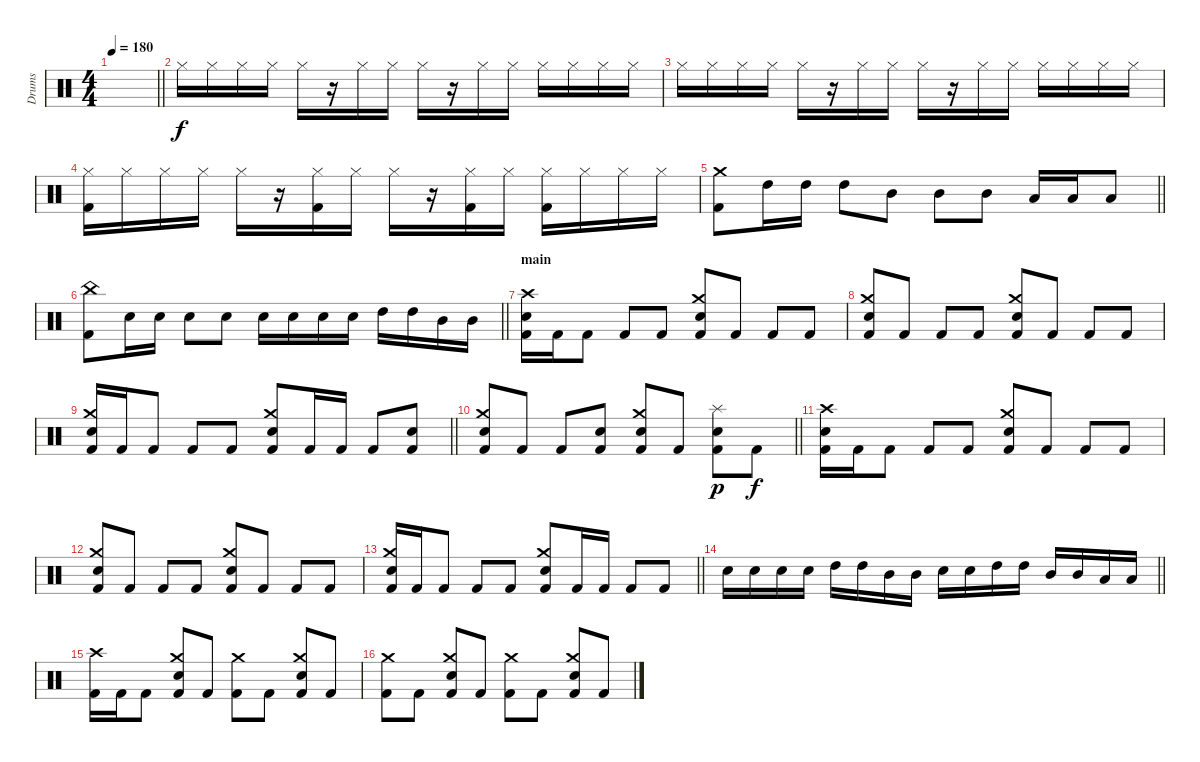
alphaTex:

\track ("Drums" "Drums") {instrument percussion}
\staff {score}
\articulation defaults
\ts (4 4)
\tempo 180
\clef neutral
\barLineRight lightlight
\ks c
|
"Hi-Hat (closed)".16 "Hi-Hat (closed)".16 "Hi-Hat (closed)".16 "Hi-Hat (closed)".16 "Hi-Hat (closed)".16 r.16 "Hi-Hat (closed)".16 "Hi-Hat (closed)".16 "Hi-Hat (closed)".16 r.16 "Hi-Hat (closed)".16 "Hi-Hat (closed)".16 "Hi-Hat (closed)".16 "Hi-Hat (closed)".16 "Hi-Hat (closed)".16 "Hi-Hat (closed)".16 |
"Hi-Hat (closed)".16 "Hi-Hat (closed)".16 "Hi-Hat (closed)".16 "Hi-Hat (closed)".16 "Hi-Hat (closed)".16 r.16 "Hi-Hat (closed)".16 "Hi-Hat (closed)".16 "Hi-Hat (closed)".16 r.16 "Hi-Hat (closed)".16 "Hi-Hat (closed)".16 "Hi-Hat (closed)".16 "Hi-Hat (closed)".16 "Hi-Hat (closed)".16 "Hi-Hat (closed)".16 |
("Hi-Hat (closed)" "Kick (hit) 2").16 "Hi-Hat (closed)".16 "Hi-Hat (closed)".16 "Hi-Hat (closed)".16 "Hi-Hat (closed)".16 r.16 ("Hi-Hat (closed)" "Kick (hit) 2").16 "Hi-Hat (closed)".16 "Hi-Hat (closed)".16 r.16 ("Hi-Hat (closed)" "Kick (hit) 2").16 "Hi-Hat (closed)".16 ("Hi-Hat (closed)" "Kick (hit) 2").16 "Hi-Hat (closed)".16 "Hi-Hat (closed)".16 "Hi-Hat (closed)".16 |
\barLineRight lightlight
("Crash medium (hit)" "Kick (hit) 2").8 "High Tom (hit)".16{dy f} "High Tom (hit)".16 "High Tom (hit)".8 "Mid Tom (hit)".8 "Mid Tom (hit)".8 "Mid Tom (hit)".8 "Low Tom (hit)".16 "Low Tom (hit)".16 "Low Tom (hit)".8 |
\barLineRight lightlight
("China (hit)" "Kick (hit) 2").8 "Electric Snare (hit)".16 "Electric Snare (hit)".16 "Electric Snare (hit)".8 "Electric Snare (hit)".8 "Electric Snare (hit)".16 "Electric Snare (hit)".16 "Electric Snare (hit)".16 "Electric Snare (hit)".16 "High Tom (hit)".16 "High Tom (hit)".16 "Mid Tom (hit)".16 "Mid Tom (hit)".16 |
\section ("" "main")
("Crash high (hit)" "Electric Snare (hit)" "Kick (hit) 2").16 "Kick (hit) 2".16 "Kick (hit) 2".8 "Kick (hit) 2".8 "Kick (hit) 2".8 ("Crash medium (hit)" "Electric Snare (hit)" "Kick (hit) 2").8 "Kick (hit) 2".8 "Kick (hit) 2".8 "Kick (hit) 2".8 |
("Crash medium (hit)" "Electric Snare (hit)" "Kick (hit) 2").8 "Kick (hit) 2".8 "Kick (hit) 2".8 "Kick (hit) 2".8 ("Crash medium (hit)" "Electric Snare (hit)" "Kick (hit) 2").8 "Kick (hit) 2".8 "Kick (hit) 2".8 "Kick (hit) 2".8 |
\barLineRight lightlight
("Crash medium (hit)" "Electric Snare (hit)" "Kick (hit) 2").16 "Kick (hit) 2".16 "Kick (hit) 2".8 "Kick (hit) 2".8 "Kick (hit) 2".8 ("Crash medium (hit)" "Electric Snare (hit)" "Kick (hit) 2").8 "Kick (hit) 2".16 "Kick (hit) 2".16 "Kick (hit) 2".8 ("Electric Snare (hit)" "Kick (hit) 2").8 |
\barLineRight lightlight
("Crash medium (hit)" "Electric Snare (hit)" "Kick (hit) 2").8 "Kick (hit) 2".8 "Kick (hit) 2".8 ("Electric Snare (hit)" "Kick (hit) 2").8 ("Crash medium (hit)" "Electric Snare (hit)" "Kick (hit) 2").8 "Kick (hit) 2".8 ("Splash (hit)" "Electric Snare (hit)" "Kick (hit) 2").8{dy p} "Kick (hit) 2".8{dy f} |
("Crash high (hit)" "Electric Snare (hit)" "Kick (hit) 2").16 "Kick (hit) 2".16 "Kick (hit) 2".8 "Kick (hit) 2".8 "Kick (hit) 2".8 ("Crash medium (hit)" "Electric Snare (hit)" "Kick (hit) 2").8 "Kick (hit) 2".8 "Kick (hit) 2".8 "Kick (hit) 2".8 |
("Crash medium (hit)" "Electric Snare (hit)" "Kick (hit) 2").8 "Kick (hit) 2".8 "Kick (hit) 2".8 "Kick (hit) 2".8 ("Crash medium (hit)" "Electric Snare (hit)" "Kick (hit) 2").8 "Kick (hit) 2".8 "Kick (hit) 2".8 "Kick (hit) 2".8 |
\barLineRight lightlight
("Crash medium (hit)" "Electric Snare (hit)" "Kick (hit) 2").16 "Kick (hit) 2".16 "Kick (hit) 2".8 "Kick (hit) 2".8 "Kick (hit) 2".8 ("Crash medium (hit)" "Electric Snare (hit)" "Kick (hit) 2").8 "Kick (hit) 2".16 "Kick (hit) 2".16 "Kick (hit) 2".8 "Kick (hit) 2".8 |
\barLineRight lightlight "Electric Snare (hit)".16 "Electric Snare (hit)".16 "Electric Snare (hit)".16 "Electric Snare (hit)".16 "High Tom (hit)".16 "High Tom (hit)".16 "Mid Tom (hit)".16 "Mid Tom (hit)".16 "Electric Snare (hit)".16 "Electric Snare (hit)".16 "High Tom (hit)".16 "High Tom (hit)".16 "Mid Tom (hit)".16 "Mid Tom (hit)".16 "Low Tom (hit)".16 "Low Tom (hit)".16
|
("Crash high (hit)" "Kick (hit) 2").16 "Kick (hit) 2".16 "Kick (hit) 2".8 ("Crash medium (hit)" "Electric Snare (hit)" "Kick (hit) 2").8 "Kick (hit) 2".8 ("Crash medium (hit)" "Kick (hit) 2").8 "Kick (hit) 2".8 ("Crash medium (hit)" "Electric Snare (hit)" "Kick (hit) 2").8 "Kick (hit) 2".8 |
("Crash medium (hit)" "Kick (hit) 2").8 "Kick (hit) 2".8 ("Crash medium (hit)" "Electric Snare (hit)" "Kick (hit) 2").8 "Kick (hit) 2".8 ("Crash medium (hit)" "Kick (hit) 2").8 "Kick (hit) 2".8 ("Crash medium (hit)" "Electric Snare (hit)" "Kick (hit) 2").8 "Kick (hit) 2".8
